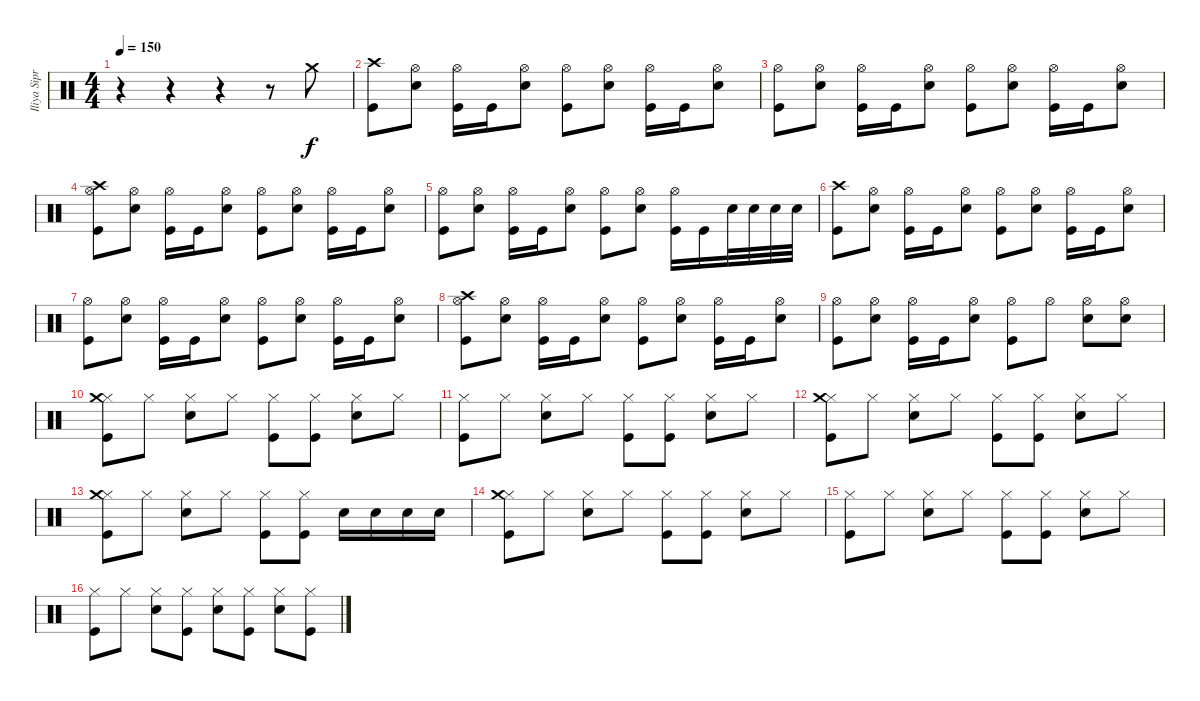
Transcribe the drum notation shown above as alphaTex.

\track ("Iliya Siprov (DRUMS)" "Iliya Sipr") {instrument percussion}
\staff {score}
\articulation defaults
\ts (4 4)
\tempo 150
\clef neutral
\ks c
r.4{dy f} r.4 r.4 r.8 "Crash medium (hit)".8 |
("Crash high (hit)" "Kick (hit)").8 ("Hi-Hat (open)" "Electric Snare (hit)").8 ("Hi-Hat (open)" "Kick (hit)").16 "Kick (hit)".16 ("Hi-Hat (open)" "Electric Snare (hit)").8 ("Hi-Hat (open)" "Kick (hit)").8 ("Hi-Hat (open)" "Electric Snare (hit)").8 ("Hi-Hat (open)" "Kick (hit)").16 "Kick (hit)".16 ("Hi-Hat (open)" "Electric Snare (hit)").8 |
("Hi-Hat (open)" "Kick (hit)").8 ("Hi-Hat (open)" "Electric Snare (hit)").8 ("Hi-Hat (open)" "Kick (hit)").16 "Kick (hit)".16 ("Hi-Hat (open)" "Electric Snare (hit)").8 ("Hi-Hat (open)" "Kick (hit)").8 ("Hi-Hat (open)" "Electric Snare (hit)").8 ("Hi-Hat (open)" "Kick (hit)").16 "Kick (hit)".16 ("Hi-Hat (open)" "Electric Snare (hit)").8 |
("Hi-Hat (open)" "Crash high (hit)" "Kick (hit)").8 ("Hi-Hat (open)" "Electric Snare (hit)").8 ("Hi-Hat (open)" "Kick (hit)").16 "Kick (hit)".16 ("Hi-Hat (open)" "Electric Snare (hit)").8 ("Hi-Hat (open)" "Kick (hit)").8 ("Hi-Hat (open)" "Electric Snare (hit)").8 ("Hi-Hat (open)" "Kick (hit)").16 "Kick (hit)".16 ("Hi-Hat (open)" "Electric Snare (hit)").8 |
("Hi-Hat (open)" "Kick (hit)").8 ("Hi-Hat (open)" "Electric Snare (hit)").8 ("Hi-Hat (open)" "Kick (hit)").16 "Kick (hit)".16 ("Hi-Hat (open)" "Electric Snare (hit)").8 ("Hi-Hat (open)" "Kick (hit)").8 ("Hi-Hat (open)" "Electric Snare (hit)").8 ("Hi-Hat (open)" "Kick (hit)").16 "Kick (hit)".16 "Electric Snare (hit)".32 "Electric Snare (hit)".32 "Electric Snare (hit)".32 "Electric Snare (hit)".32 |
("Crash high (hit)" "Kick (hit)").8 ("Hi-Hat (open)" "Electric Snare (hit)").8 ("Hi-Hat (open)" "Kick (hit)").16 "Kick (hit)".16 ("Hi-Hat (open)" "Electric Snare (hit)").8 ("Hi-Hat (open)" "Kick (hit)").8 ("Hi-Hat (open)" "Electric Snare (hit)").8 ("Hi-Hat (open)" "Kick (hit)").16 "Kick (hit)".16 ("Hi-Hat (open)" "Electric Snare (hit)").8 |
("Hi-Hat (open)" "Kick (hit)").8 ("Hi-Hat (open)" "Electric Snare (hit)").8 ("Hi-Hat (open)" "Kick (hit)").16 "Kick (hit)".16 ("Hi-Hat (open)" "Electric Snare (hit)").8 ("Hi-Hat (open)" "Kick (hit)").8 ("Hi-Hat (open)" "Electric Snare (hit)").8 ("Hi-Hat (open)" "Kick (hit)").16 "Kick (hit)".16 ("Hi-Hat (open)" "Electric Snare (hit)").8 |
("Hi-Hat (open)" "Crash high (hit)" "Kick (hit)").8 ("Hi-Hat (open)" "Electric Snare (hit)").8 ("Hi-Hat (open)" "Kick (hit)").16 "Kick (hit)".16 ("Hi-Hat (open)" "Electric Snare (hit)").8 ("Hi-Hat (open)" "Kick (hit)").8 ("Hi-Hat (open)" "Electric Snare (hit)").8 ("Hi-Hat (open)" "Kick (hit)").16 "Kick (hit)".16 ("Hi-Hat (open)" "Electric Snare (hit)").8 |
("Hi-Hat (open)" "Kick (hit)").8 ("Hi-Hat (open)" "Electric Snare (hit)").8 ("Hi-Hat (open)" "Kick (hit)").16 "Kick (hit)".16 ("Hi-Hat (open)" "Electric Snare (hit)").8 ("Hi-Hat (open)" "Kick (hit)").8 "Hi-Hat (open)".8 ("Hi-Hat (open)" "Electric Snare (hit)").8 ("Hi-Hat (open)" "Electric Snare (hit)").8 |
("Hi-Hat (closed)" "Crash medium (hit)" "Kick (hit)").8 "Hi-Hat (closed)".8 ("Hi-Hat (closed)" "Electric Snare (hit)").8 "Hi-Hat (closed)".8 ("Hi-Hat (closed)" "Kick (hit)").8 ("Hi-Hat (closed)" "Kick (hit)").8 ("Hi-Hat (closed)" "Electric Snare (hit)").8 "Hi-Hat (closed)".8 |
("Hi-Hat (closed)" "Kick (hit)").8 "Hi-Hat (closed)".8 ("Hi-Hat (closed)" "Electric Snare (hit)").8 "Hi-Hat (closed)".8 ("Hi-Hat (closed)" "Kick (hit)").8 ("Hi-Hat (closed)" "Kick (hit)").8 ("Hi-Hat (closed)" "Electric Snare (hit)").8 "Hi-Hat (closed)".8 |
("Hi-Hat (closed)" "Crash medium (hit)" "Kick (hit)").8 "Hi-Hat (closed)".8 ("Hi-Hat (closed)" "Electric Snare (hit)").8 "Hi-Hat (closed)".8 ("Hi-Hat (closed)" "Kick (hit)").8 ("Hi-Hat (closed)" "Kick (hit)").8 ("Hi-Hat (closed)" "Electric Snare (hit)").8 "Hi-Hat (closed)".8 |
("Hi-Hat (closed)" "Crash medium (hit)" "Kick (hit)").8 "Hi-Hat (closed)".8 ("Hi-Hat (closed)" "Electric Snare (hit)").8 "Hi-Hat (closed)".8 ("Hi-Hat (closed)" "Kick (hit)").8 ("Hi-Hat (closed)" "Kick (hit)").8 "Electric Snare (hit)".16 "Electric Snare (hit)".16 "Electric Snare (hit)".16 "Electric Snare (hit)".16 |
("Hi-Hat (closed)" "Crash medium (hit)" "Kick (hit)").8 "Hi-Hat (closed)".8 ("Hi-Hat (closed)" "Electric Snare (hit)").8 "Hi-Hat (closed)".8 ("Hi-Hat (closed)" "Kick (hit)").8 ("Hi-Hat (closed)" "Kick (hit)").8 ("Hi-Hat (closed)" "Electric Snare (hit)").8 "Hi-Hat (closed)".8 |
("Hi-Hat (closed)" "Kick (hit)").8 "Hi-Hat (closed)".8 ("Hi-Hat (closed)" "Electric Snare (hit)").8 "Hi-Hat (closed)".8 ("Hi-Hat (closed)" "Kick (hit)").8 ("Hi-Hat (closed)" "Kick (hit)").8 ("Hi-Hat (closed)" "Electric Snare (hit)").8 "Hi-Hat (closed)".8 |
("Hi-Hat (closed)" "Kick (hit)").8 "Hi-Hat (closed)".8 ("Hi-Hat (closed)" "Electric Snare (hit)").8 ("Hi-Hat (closed)" "Kick (hit)").8 ("Hi-Hat (closed)" "Electric Snare (hit)").8 ("Hi-Hat (closed)" "Kick (hit)").8 ("Hi-Hat (closed)" "Electric Snare (hit)").8 ("Hi-Hat (closed)" "Kick (hit)").8
